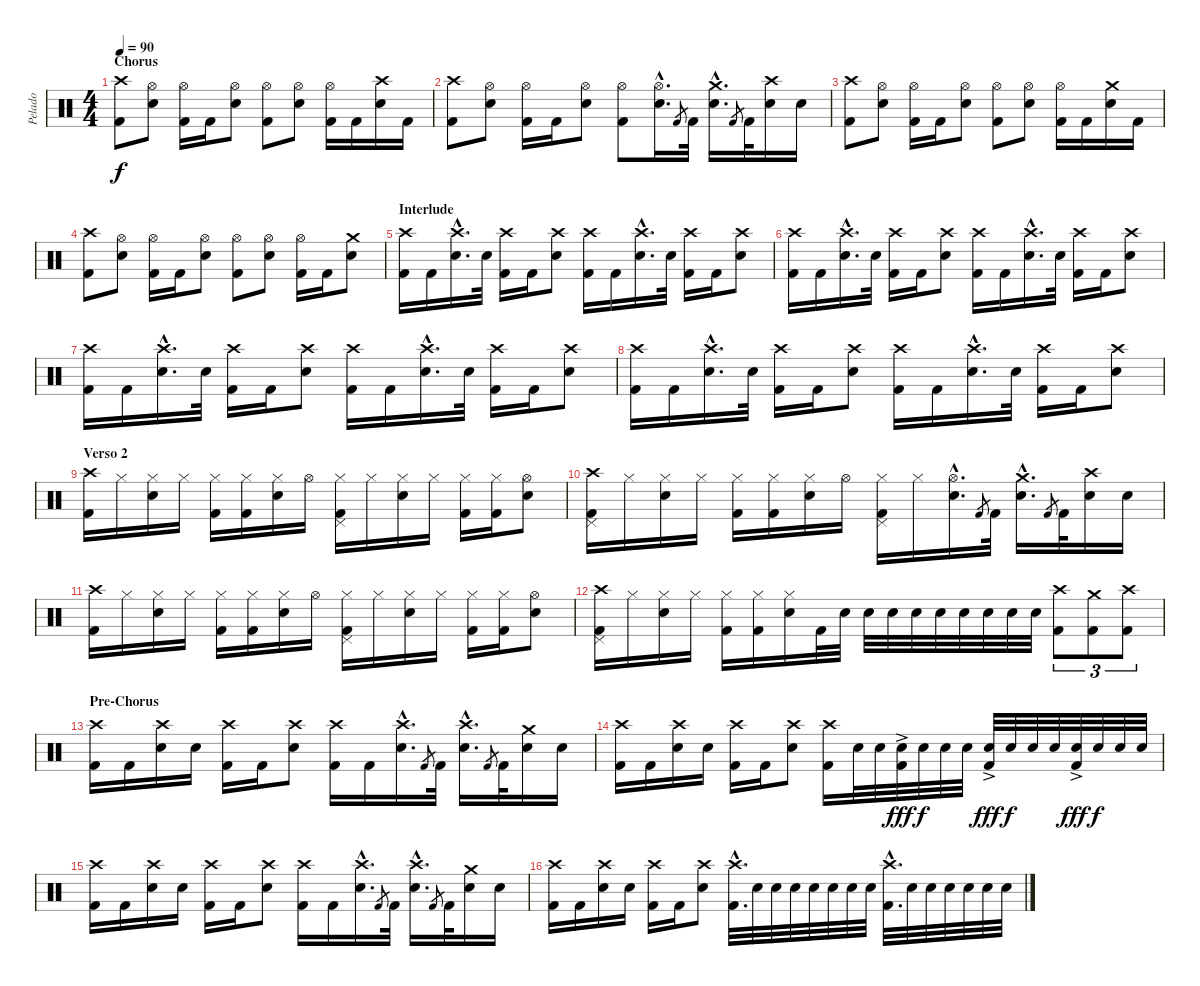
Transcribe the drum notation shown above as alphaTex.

\track ("Pelado" "Pelado") {instrument percussion}
\staff {score}
\articulation defaults
\ts (4 4)
\section ("" "Chorus")
\tempo 90
\clef neutral
\ks c
("Crash high (hit)" "Kick (hit) 2").8{dy f} ("Hi-Hat (open)" "Electric Snare (hit)").8 ("Hi-Hat (open)" "Kick (hit) 2").16 "Kick (hit) 2".16 ("Hi-Hat (open)" "Electric Snare (hit)").8 ("Hi-Hat (open)" "Kick (hit) 2").8 ("Hi-Hat (open)" "Electric Snare (hit)").8 ("Hi-Hat (open)" "Kick (hit) 2").16 "Kick (hit) 2".16 ("Crash high (hit)" "Electric Snare (hit)").16 "Kick (hit) 2".16 |
("Crash high (hit)" "Kick (hit) 2").8 ("Hi-Hat (open)" "Electric Snare (hit)").8 ("Hi-Hat (open)" "Kick (hit) 2").16 "Kick (hit) 2".16 ("Hi-Hat (open)" "Electric Snare (hit)").8 ("Hi-Hat (open)" "Kick (hit) 2").8 ("Hi-Hat (open)"{hac} "Electric Snare (hit)"{hac}).16{d} "Kick (hit) 2".8{gr} "Kick (hit) 2".32 ("Crash medium (hit)"{hac} "Electric Snare (hit)"{hac}).16{d} "Kick (hit) 2".8{gr} "Kick (hit) 2".32 ("Crash high (hit)" "Electric Snare (hit)").16 "Electric Snare (hit)".16 |
("Crash high (hit)" "Kick (hit) 2").8 ("Hi-Hat (open)" "Electric Snare (hit)").8 ("Hi-Hat (open)" "Kick (hit) 2").16 "Kick (hit) 2".16 ("Hi-Hat (open)" "Electric Snare (hit)").8 ("Hi-Hat (open)" "Kick (hit) 2").8 ("Hi-Hat (open)" "Electric Snare (hit)").8 ("Hi-Hat (open)" "Kick (hit) 2").16 "Kick (hit) 2".16 ("Crash medium (hit)" "Electric Snare (hit)").16 "Kick (hit) 2".16 |
("Crash high (hit)" "Kick (hit) 2").8 ("Hi-Hat (open)" "Electric Snare (hit)").8 ("Hi-Hat (open)" "Kick (hit) 2").16 "Kick (hit) 2".16 ("Hi-Hat (open)" "Electric Snare (hit)").8 ("Hi-Hat (open)" "Kick (hit) 2").8 ("Hi-Hat (open)" "Electric Snare (hit)").8 ("Hi-Hat (open)" "Kick (hit) 2").16 "Kick (hit) 2".16 ("Crash medium (hit)" "Electric Snare (hit)").8 |
\section ("" "Interlude")
("Crash high (hit)" "Kick (hit) 2").16 "Kick (hit) 2".16 ("Crash high (hit)"{hac} "Electric Snare (hit)"{hac}).16{d} "Electric Snare (hit)".32 ("Crash high (hit)" "Kick (hit) 2").16 "Kick (hit) 2".16 ("Crash high (hit)" "Electric Snare (hit)").8 ("Crash high (hit)" "Kick (hit) 2").16 "Kick (hit) 2".16 ("Crash high (hit)"{hac} "Electric Snare (hit)"{hac}).16{d} "Electric Snare (hit)".32 ("Crash high (hit)" "Kick (hit) 2").16 "Kick (hit) 2".16 ("Crash high (hit)" "Electric Snare (hit)").8 |
("Crash high (hit)" "Kick (hit) 2").16 "Kick (hit) 2".16 ("Crash high (hit)"{hac} "Electric Snare (hit)"{hac}).16{d} "Electric Snare (hit)".32 ("Crash high (hit)" "Kick (hit) 2").16 "Kick (hit) 2".16 ("Crash high (hit)" "Electric Snare (hit)").8 ("Crash high (hit)" "Kick (hit) 2").16 "Kick (hit) 2".16 ("Crash high (hit)"{hac} "Electric Snare (hit)"{hac}).16{d} "Electric Snare (hit)".32 ("Crash high (hit)" "Kick (hit) 2").16 "Kick (hit) 2".16 ("Crash high (hit)" "Electric Snare (hit)").8 |
("Crash high (hit)" "Kick (hit) 2").16 "Kick (hit) 2".16 ("Crash high (hit)"{hac} "Electric Snare (hit)"{hac}).16{d} "Electric Snare (hit)".32 ("Crash high (hit)" "Kick (hit) 2").16 "Kick (hit) 2".16 ("Crash high (hit)" "Electric Snare (hit)").8 ("Crash high (hit)" "Kick (hit) 2").16 "Kick (hit) 2".16 ("Crash high (hit)"{hac} "Electric Snare (hit)"{hac}).16{d} "Electric Snare (hit)".32 ("Crash high (hit)" "Kick (hit) 2").16 "Kick (hit) 2".16 ("Crash high (hit)" "Electric Snare (hit)").8 |
("Crash high (hit)" "Kick (hit) 2").16 "Kick (hit) 2".16 ("Crash high (hit)"{hac} "Electric Snare (hit)"{hac}).16{d} "Electric Snare (hit)".32 ("Crash high (hit)" "Kick (hit) 2").16 "Kick (hit) 2".16 ("Crash high (hit)" "Electric Snare (hit)").8 ("Crash high (hit)" "Kick (hit) 2").16 "Kick (hit) 2".16 ("Crash high (hit)"{hac} "Electric Snare (hit)"{hac}).16{d} "Electric Snare (hit)".32 ("Crash high (hit)" "Kick (hit) 2").16 "Kick (hit) 2".16 ("Crash high (hit)" "Electric Snare (hit)").8 |
\section ("" "Verso 2")
("Crash high (hit)" "Kick (hit) 2").16 "Hi-Hat (closed)".16 ("Hi-Hat (closed)" "Electric Snare (hit)").16 "Hi-Hat (closed)".16 ("Hi-Hat (closed)" "Kick (hit) 2").16 ("Hi-Hat (closed)" "Kick (hit) 2").16 ("Hi-Hat (closed)" "Electric Snare (hit)").16 "Hi-Hat (open)".16 ("Hi-Hat (closed)" "Pedal Hi-Hat (hit)" "Kick (hit) 2").16 "Hi-Hat (closed)".16 ("Hi-Hat (closed)" "Electric Snare (hit)").16 "Hi-Hat (closed)".16 ("Hi-Hat (closed)" "Kick (hit) 2").16 ("Hi-Hat (closed)" "Kick (hit) 2").16 ("Hi-Hat (open)" "Electric Snare (hit)").8 |
("Crash high (hit)" "Pedal Hi-Hat (hit)" "Kick (hit) 2").16 "Hi-Hat (closed)".16 ("Hi-Hat (closed)" "Electric Snare (hit)").16 "Hi-Hat (closed)".16 ("Hi-Hat (closed)" "Kick (hit) 2").16 ("Hi-Hat (closed)" "Kick (hit) 2").16 ("Hi-Hat (closed)" "Electric Snare (hit)").16 "Hi-Hat (open)".16 ("Hi-Hat (closed)" "Pedal Hi-Hat (hit)" "Kick (hit) 2").16 "Hi-Hat (closed)".16 ("Hi-Hat (open)"{hac} "Electric Snare (hit)"{hac}).16{d} "Kick (hit) 2".8{gr} "Kick (hit) 2".32 ("Crash medium (hit)"{hac} "Electric Snare (hit)"{hac}).16{d} "Kick (hit) 2".8{gr} "Kick (hit) 2".32 ("Crash high (hit)" "Electric Snare (hit)").16 "Electric Snare (hit)".16 |
("Crash high (hit)" "Kick (hit) 2").16 "Hi-Hat (closed)".16 ("Hi-Hat (closed)" "Electric Snare (hit)").16 "Hi-Hat (closed)".16 ("Hi-Hat (closed)" "Kick (hit) 2").16 ("Hi-Hat (closed)" "Kick (hit) 2").16 ("Hi-Hat (closed)" "Electric Snare (hit)").16 "Hi-Hat (open)".16 ("Hi-Hat (closed)" "Pedal Hi-Hat (hit)" "Kick (hit) 2").16 "Hi-Hat (closed)".16 ("Hi-Hat (closed)" "Electric Snare (hit)").16 "Hi-Hat (closed)".16 ("Hi-Hat (closed)" "Kick (hit) 2").16 ("Hi-Hat (closed)" "Kick (hit) 2").16 ("Hi-Hat (open)" "Electric Snare (hit)").8 |
("Crash high (hit)" "Pedal Hi-Hat (hit)" "Kick (hit) 2").16 "Hi-Hat (closed)".16 ("Hi-Hat (closed)" "Electric Snare (hit)").16 "Hi-Hat (closed)".16 ("Hi-Hat (closed)" "Kick (hit) 2").16 ("Hi-Hat (closed)" "Kick (hit) 2").16 ("Hi-Hat (closed)" "Electric Snare (hit)").16 "Kick (hit) 2".32 "Electric Snare (hit)".32 "Electric Snare (hit)".32 "Electric Snare (hit)".32 "Electric Snare (hit)".32 "Electric Snare (hit)".32 "Electric Snare (hit)".32 "Electric Snare (hit)".32 "Electric Snare (hit)".32 "Electric Snare (hit)".32 ("Crash high (hit)" "Kick (hit) 2").8{tu (3 2)} ("Crash medium (hit)" "Kick (hit) 2").8{tu (3 2)} ("Crash high (hit)" "Kick (hit) 2").8{tu (3 2)} |
\section ("" "Pre-Chorus")
("Crash high (hit)" "Kick (hit) 2").16 "Kick (hit) 2".16 ("Crash high (hit)" "Electric Snare (hit)").16 "Electric Snare (hit)".16 ("Crash high (hit)" "Kick (hit) 2").16 "Kick (hit) 2".16 ("Crash high (hit)" "Electric Snare (hit)").8 ("Crash high (hit)" "Kick (hit) 2").16 "Kick (hit) 2".16 ("Crash high (hit)"{hac} "Electric Snare (hit)"{hac}).16{d} "Kick (hit) 2".8{gr} "Kick (hit) 2".32 ("Crash high (hit)"{hac} "Electric Snare (hit)"{hac}).16{d} "Kick (hit) 2".8{gr} "Kick (hit) 2".32 ("Crash medium (hit)" "Electric Snare (hit)").16 "Electric Snare (hit)".16 |
("Crash high (hit)" "Kick (hit) 2").16 "Kick (hit) 2".16 ("Crash high (hit)" "Electric Snare (hit)").16 "Electric Snare (hit)".16 ("Crash high (hit)" "Kick (hit) 2").16 "Kick (hit) 2".16 ("Crash high (hit)" "Electric Snare (hit)").8 ("Crash high (hit)" "Kick (hit) 2").16 "Electric Snare (hit)".32 "Electric Snare (hit)".32 ("Electric Snare (hit)"{ac} "Kick (hit) 2").32{dy fff} "Electric Snare (hit)".32{dy f} "Electric Snare (hit)".32 "Electric Snare (hit)".32 ("Electric Snare (hit)"{ac} "Kick (hit) 2").32{dy fff} "Electric Snare (hit)".32{dy f} "Electric Snare (hit)".32 "Electric Snare (hit)".32 ("Electric Snare (hit)"{ac} "Kick (hit) 2").32{dy fff} "Electric Snare (hit)".32{dy f} "Electric Snare (hit)".32 "Electric Snare (hit)".32 |
("Crash high (hit)" "Kick (hit) 2").16 "Kick (hit) 2".16 ("Crash high (hit)" "Electric Snare (hit)").16 "Electric Snare (hit)".16 ("Crash high (hit)" "Kick (hit) 2").16 "Kick (hit) 2".16 ("Crash high (hit)" "Electric Snare (hit)").8 ("Crash high (hit)" "Kick (hit) 2").16 "Kick (hit) 2".16 ("Crash high (hit)"{hac} "Electric Snare (hit)"{hac}).16{d} "Kick (hit) 2".8{gr} "Kick (hit) 2".32 ("Crash high (hit)"{hac} "Electric Snare (hit)"{hac}).16{d} "Kick (hit) 2".8{gr} "Kick (hit) 2".32 ("Crash medium (hit)" "Electric Snare (hit)").16 "Electric Snare (hit)".16 |
("Crash high (hit)" "Kick (hit) 2").16 "Kick (hit) 2".16 ("Crash high (hit)" "Electric Snare (hit)").16 "Electric Snare (hit)".16 ("Crash high (hit)" "Kick (hit) 2").16 "Kick (hit) 2".16 ("Crash high (hit)" "Electric Snare (hit)").8 ("Crash high (hit)"{hac} "Kick (hit) 2"{hac}).32{d} "Electric Snare (hit)".32 "Electric Snare (hit)".32 "Electric Snare (hit)".32 "Electric Snare (hit)".32 "Electric Snare (hit)".32 "Electric Snare (hit)".32 "Electric Snare (hit)".32 ("Crash high (hit)"{hac} "Kick (hit) 2"{hac}).32{d} "Electric Snare (hit)".32 "Electric Snare (hit)".32 "Electric Snare (hit)".32 "Electric Snare (hit)".32 "Electric Snare (hit)".32 "Electric Snare (hit)".32
